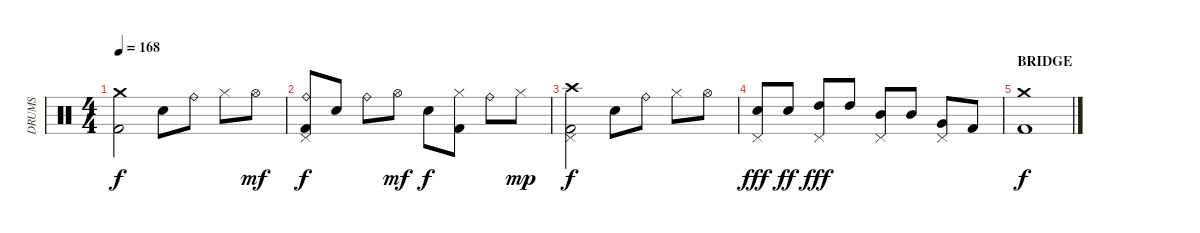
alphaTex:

\track ("DRUMS" "DRUMS") {instrument percussion}
\staff {score}
\articulation defaults
\ts (4 4)
\tempo 168
\clef neutral
\ks c
("Crash medium (hit)" "Kick (hit) 2").2{dy f} "Electric Snare (hit)".8 "Ride (bell)".8 "Hi-Hat (closed)".8 "Hi-Hat (open)".8{dy mf} |
("Ride (bell)" "Pedal Hi-Hat (hit)" "Kick (hit) 2").8{dy f} "Electric Snare (hit)".8 "Ride (bell)".8 "Hi-Hat (open)".8{dy mf} "Electric Snare (hit)".8{dy f} ("Hi-Hat (closed)" "Kick (hit) 2").8 "Ride (bell)".8 "Hi-Hat (closed)".8{dy mp} |
("Crash high (hit)" "Pedal Hi-Hat (hit)" "Kick (hit) 2").2{dy f} "Electric Snare (hit)".8 "Ride (bell)".8 "Hi-Hat (closed)".8 "Hi-Hat (open)".8 |
("Electric Snare (hit)" "Pedal Hi-Hat (hit)").8{dy fff} "Electric Snare (hit)".8{dy ff} ("High Tom (hit)" "Pedal Hi-Hat (hit)").8{dy fff} "High Tom (hit)".8 ("Mid Tom (hit)" "Pedal Hi-Hat (hit)").8 "Mid Tom (hit)".8 ("Very Low Tom (hit)" "Pedal Hi-Hat (hit)").8 "Kick (hit) 2".8 |
\section ("" "BRIDGE")
("Crash medium (hit)" "Kick (hit) 2").1{dy f}
